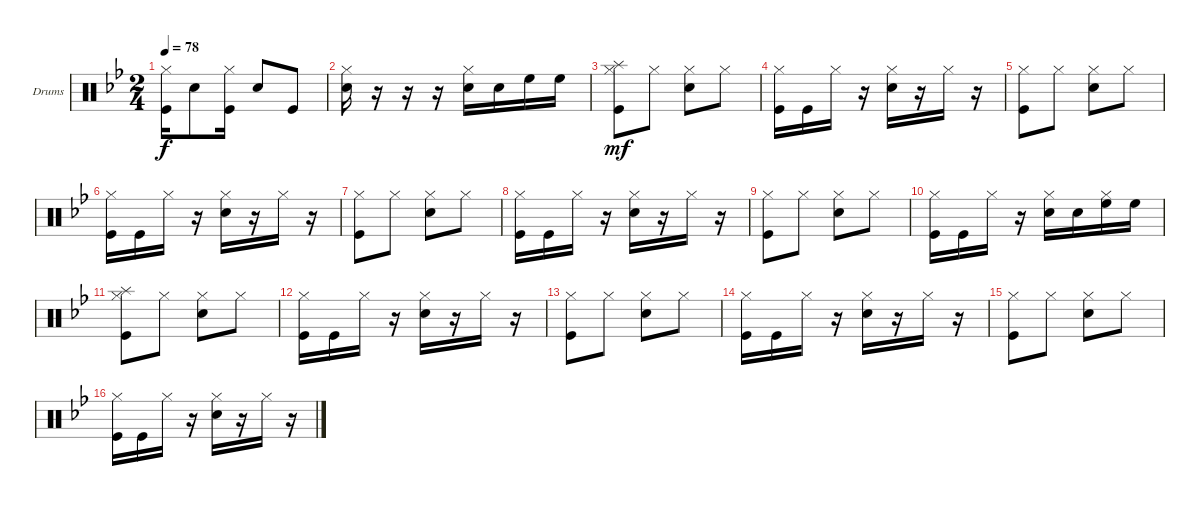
\defaultSystemsLayout 4
\bracketExtendMode groupsimilarinstruments
\firstSystemTrackNameOrientation horizontal
\otherSystemsTrackNameOrientation horizontal
\track ("Катя" "Drums") {instrument percussion}
\staff {score}
\articulation defaults
\ts (2 4)
\tempo 78
\clef neutral
\ks gminor
("Kick (hit)" "Hi-Hat (closed)").16{dy f} "Snare (hit) 2".8 ("Kick (hit)" "Hi-Hat (closed)").16 "Snare (hit) 2".8 "Kick (hit)".8 |
("Hi-Hat (closed)" "Snare (hit) 2").16 r.16 r.16 r.16 ("Hi-Hat (closed)" "Snare (hit) 2").16 "Snare (hit) 2".16 "High Floor Tom (hit)".16 "High Floor Tom (hit)".16 |
("Kick (hit)" "Hi-Hat (closed)" "Splash (hit)").8{dy mf} "Hi-Hat (closed)".8 ("Hi-Hat (closed)" "Snare (hit) 2").8 "Hi-Hat (closed)".8 |
("Hi-Hat (closed)" "Kick (hit)").16 "Kick (hit)".16 "Hi-Hat (closed)".16 r.16 ("Hi-Hat (closed)" "Snare (hit) 2").16 r.16 "Hi-Hat (closed)".16 r.16 |
("Kick (hit)" "Hi-Hat (closed)").8 "Hi-Hat (closed)".8 ("Hi-Hat (closed)" "Snare (hit) 2").8 "Hi-Hat (closed)".8 |
("Hi-Hat (closed)" "Kick (hit)").16 "Kick (hit)".16 "Hi-Hat (closed)".16 r.16 ("Hi-Hat (closed)" "Snare (hit) 2").16 r.16 "Hi-Hat (closed)".16 r.16 |
("Kick (hit)" "Hi-Hat (closed)").8 "Hi-Hat (closed)".8 ("Hi-Hat (closed)" "Snare (hit) 2").8 "Hi-Hat (closed)".8 |
("Hi-Hat (closed)" "Kick (hit)").16 "Kick (hit)".16 "Hi-Hat (closed)".16 r.16 ("Hi-Hat (closed)" "Snare (hit) 2").16 r.16 "Hi-Hat (closed)".16 r.16 |
("Kick (hit)" "Hi-Hat (closed)").8 "Hi-Hat (closed)".8 ("Hi-Hat (closed)" "Snare (hit) 2").8 "Hi-Hat (closed)".8 |
("Hi-Hat (closed)" "Kick (hit)").16 "Kick (hit)".16 "Hi-Hat (closed)".16 r.16 ("Hi-Hat (closed)" "Snare (hit) 2").16 "Snare (hit) 2".16 ("Hi-Hat (closed)" "High Floor Tom (hit)").16 "High Floor Tom (hit)".16 |
("Kick (hit)" "Hi-Hat (closed)" "Splash (hit)").8 "Hi-Hat (closed)".8 ("Hi-Hat (closed)" "Snare (hit) 2").8 "Hi-Hat (closed)".8 |
("Hi-Hat (closed)" "Kick (hit)").16 "Kick (hit)".16 "Hi-Hat (closed)".16 r.16 ("Hi-Hat (closed)" "Snare (hit) 2").16 r.16 "Hi-Hat (closed)".16 r.16 |
("Kick (hit)" "Hi-Hat (closed)").8 "Hi-Hat (closed)".8 ("Hi-Hat (closed)" "Snare (hit) 2").8 "Hi-Hat (closed)".8 |
("Hi-Hat (closed)" "Kick (hit)").16 "Kick (hit)".16 "Hi-Hat (closed)".16 r.16 ("Hi-Hat (closed)" "Snare (hit) 2").16 r.16 "Hi-Hat (closed)".16 r.16 |
("Kick (hit)" "Hi-Hat (closed)").8 "Hi-Hat (closed)".8 ("Hi-Hat (closed)" "Snare (hit) 2").8 "Hi-Hat (closed)".8 |
("Hi-Hat (closed)" "Kick (hit)").16 "Kick (hit)".16 "Hi-Hat (closed)".16 r.16 ("Hi-Hat (closed)" "Snare (hit) 2").16 r.16 "Hi-Hat (closed)".16 r.16
